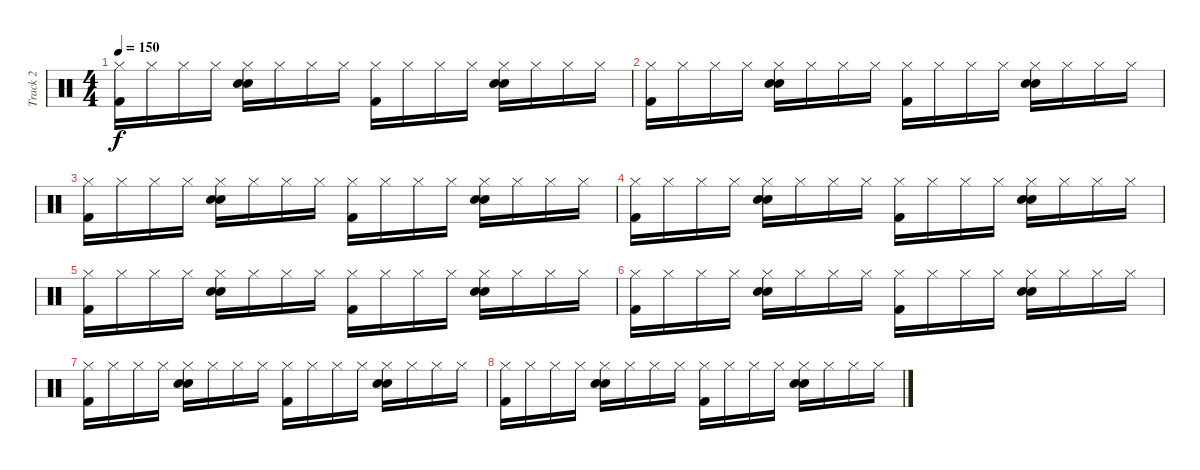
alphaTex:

\track ("Track 2" "Track 2") {instrument percussion}
\staff {score}
\articulation defaults
\ts (4 4)
\tempo 150
\clef neutral
\ks c
("Hi-Hat (closed)" "Kick (hit) 2").16{dy f} "Hi-Hat (closed)".16 "Hi-Hat (closed)".16 "Hi-Hat (closed)".16 ("Hi-Hat (closed)" "Hand Clap (hit)" "Electric Snare (hit)").16 "Hi-Hat (closed)".16 "Hi-Hat (closed)".16 "Hi-Hat (closed)".16 ("Hi-Hat (closed)" "Kick (hit) 2").16 "Hi-Hat (closed)".16 "Hi-Hat (closed)".16 "Hi-Hat (closed)".16 ("Hi-Hat (closed)" "Electric Snare (hit)" "Hand Clap (hit)").16 "Hi-Hat (closed)".16 "Hi-Hat (closed)".16 "Hi-Hat (closed)".16 |
("Hi-Hat (closed)" "Kick (hit) 2").16 "Hi-Hat (closed)".16 "Hi-Hat (closed)".16 "Hi-Hat (closed)".16 ("Hi-Hat (closed)" "Hand Clap (hit)" "Electric Snare (hit)").16 "Hi-Hat (closed)".16 "Hi-Hat (closed)".16 "Hi-Hat (closed)".16 ("Hi-Hat (closed)" "Kick (hit) 2").16 "Hi-Hat (closed)".16 "Hi-Hat (closed)".16 "Hi-Hat (closed)".16 ("Hi-Hat (closed)" "Electric Snare (hit)" "Hand Clap (hit)").16 "Hi-Hat (closed)".16 "Hi-Hat (closed)".16 "Hi-Hat (closed)".16 |
("Hi-Hat (closed)" "Kick (hit) 2").16 "Hi-Hat (closed)".16 "Hi-Hat (closed)".16 "Hi-Hat (closed)".16 ("Hi-Hat (closed)" "Hand Clap (hit)" "Electric Snare (hit)").16 "Hi-Hat (closed)".16 "Hi-Hat (closed)".16 "Hi-Hat (closed)".16 ("Hi-Hat (closed)" "Kick (hit) 2").16 "Hi-Hat (closed)".16 "Hi-Hat (closed)".16 "Hi-Hat (closed)".16 ("Hi-Hat (closed)" "Electric Snare (hit)" "Hand Clap (hit)").16 "Hi-Hat (closed)".16 "Hi-Hat (closed)".16 "Hi-Hat (closed)".16 |
("Hi-Hat (closed)" "Kick (hit) 2").16 "Hi-Hat (closed)".16 "Hi-Hat (closed)".16 "Hi-Hat (closed)".16 ("Hi-Hat (closed)" "Hand Clap (hit)" "Electric Snare (hit)").16 "Hi-Hat (closed)".16 "Hi-Hat (closed)".16 "Hi-Hat (closed)".16 ("Hi-Hat (closed)" "Kick (hit) 2").16 "Hi-Hat (closed)".16 "Hi-Hat (closed)".16 "Hi-Hat (closed)".16 ("Hi-Hat (closed)" "Electric Snare (hit)" "Hand Clap (hit)").16 "Hi-Hat (closed)".16 "Hi-Hat (closed)".16 "Hi-Hat (closed)".16 |
("Hi-Hat (closed)" "Kick (hit) 2").16 "Hi-Hat (closed)".16 "Hi-Hat (closed)".16 "Hi-Hat (closed)".16 ("Hi-Hat (closed)" "Hand Clap (hit)" "Electric Snare (hit)").16 "Hi-Hat (closed)".16 "Hi-Hat (closed)".16 "Hi-Hat (closed)".16 ("Hi-Hat (closed)" "Kick (hit) 2").16 "Hi-Hat (closed)".16 "Hi-Hat (closed)".16 "Hi-Hat (closed)".16 ("Hi-Hat (closed)" "Electric Snare (hit)" "Hand Clap (hit)").16 "Hi-Hat (closed)".16 "Hi-Hat (closed)".16 "Hi-Hat (closed)".16 |
("Hi-Hat (closed)" "Kick (hit) 2").16 "Hi-Hat (closed)".16 "Hi-Hat (closed)".16 "Hi-Hat (closed)".16 ("Hi-Hat (closed)" "Hand Clap (hit)" "Electric Snare (hit)").16 "Hi-Hat (closed)".16 "Hi-Hat (closed)".16 "Hi-Hat (closed)".16 ("Hi-Hat (closed)" "Kick (hit) 2").16 "Hi-Hat (closed)".16 "Hi-Hat (closed)".16 "Hi-Hat (closed)".16 ("Hi-Hat (closed)" "Electric Snare (hit)" "Hand Clap (hit)").16 "Hi-Hat (closed)".16 "Hi-Hat (closed)".16 "Hi-Hat (closed)".16 |
("Hi-Hat (closed)" "Kick (hit) 2").16 "Hi-Hat (closed)".16 "Hi-Hat (closed)".16 "Hi-Hat (closed)".16 ("Hi-Hat (closed)" "Hand Clap (hit)" "Electric Snare (hit)").16 "Hi-Hat (closed)".16 "Hi-Hat (closed)".16 "Hi-Hat (closed)".16 ("Hi-Hat (closed)" "Kick (hit) 2").16 "Hi-Hat (closed)".16 "Hi-Hat (closed)".16 "Hi-Hat (closed)".16 ("Hi-Hat (closed)" "Electric Snare (hit)" "Hand Clap (hit)").16 "Hi-Hat (closed)".16 "Hi-Hat (closed)".16 "Hi-Hat (closed)".16 |
("Hi-Hat (closed)" "Kick (hit) 2").16 "Hi-Hat (closed)".16 "Hi-Hat (closed)".16 "Hi-Hat (closed)".16 ("Hi-Hat (closed)" "Hand Clap (hit)" "Electric Snare (hit)").16 "Hi-Hat (closed)".16 "Hi-Hat (closed)".16 "Hi-Hat (closed)".16 ("Hi-Hat (closed)" "Kick (hit) 2").16 "Hi-Hat (closed)".16 "Hi-Hat (closed)".16 "Hi-Hat (closed)".16 ("Hi-Hat (closed)" "Electric Snare (hit)" "Hand Clap (hit)").16 "Hi-Hat (closed)".16 "Hi-Hat (closed)".16 "Hi-Hat (closed)".16
